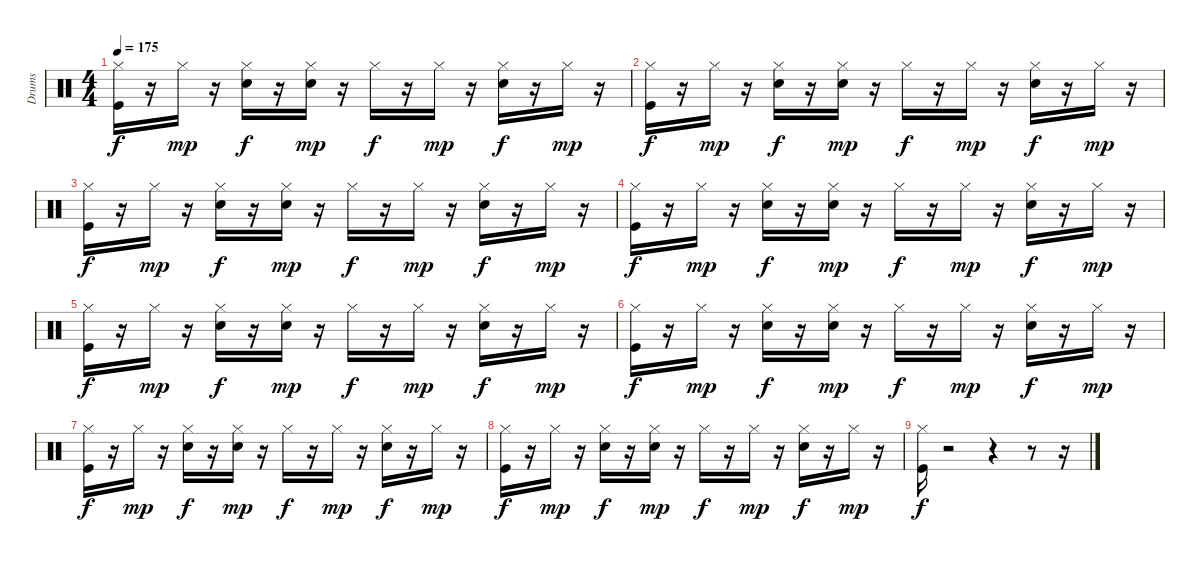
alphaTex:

\track ("Drums" "Drums") {instrument percussion}
\staff {score}
\articulation defaults
\ts (4 4)
\tempo 175
\clef neutral
\ks c
("Kick (hit)" "Hi-Hat (closed)").16{dy f} r.16 "Hi-Hat (closed)".16{dy mp} r.16 ("Snare (hit) 2" "Hi-Hat (closed)").16{dy f} r.16 ("Snare (hit) 2" "Hi-Hat (closed)").16{dy mp} r.16 "Hi-Hat (closed)".16{dy f} r.16 "Hi-Hat (closed)".16{dy mp} r.16 ("Snare (hit) 2" "Hi-Hat (closed)").16{dy f} r.16 "Hi-Hat (closed)".16{dy mp} r.16 |
("Kick (hit)" "Hi-Hat (closed)").16{dy f} r.16 "Hi-Hat (closed)".16{dy mp} r.16 ("Snare (hit) 2" "Hi-Hat (closed)").16{dy f} r.16 ("Snare (hit) 2" "Hi-Hat (closed)").16{dy mp} r.16 "Hi-Hat (closed)".16{dy f} r.16 "Hi-Hat (closed)".16{dy mp} r.16 ("Snare (hit) 2" "Hi-Hat (closed)").16{dy f} r.16 "Hi-Hat (closed)".16{dy mp} r.16 |
("Kick (hit)" "Hi-Hat (closed)").16{dy f} r.16 "Hi-Hat (closed)".16{dy mp} r.16 ("Snare (hit) 2" "Hi-Hat (closed)").16{dy f} r.16 ("Snare (hit) 2" "Hi-Hat (closed)").16{dy mp} r.16 "Hi-Hat (closed)".16{dy f} r.16 "Hi-Hat (closed)".16{dy mp} r.16 ("Snare (hit) 2" "Hi-Hat (closed)").16{dy f} r.16 "Hi-Hat (closed)".16{dy mp} r.16 |
("Kick (hit)" "Hi-Hat (closed)").16{dy f} r.16 "Hi-Hat (closed)".16{dy mp} r.16 ("Snare (hit) 2" "Hi-Hat (closed)").16{dy f} r.16 ("Snare (hit) 2" "Hi-Hat (closed)").16{dy mp} r.16 "Hi-Hat (closed)".16{dy f} r.16 "Hi-Hat (closed)".16{dy mp} r.16 ("Snare (hit) 2" "Hi-Hat (closed)").16{dy f} r.16 "Hi-Hat (closed)".16{dy mp} r.16 |
("Kick (hit)" "Hi-Hat (closed)").16{dy f} r.16 "Hi-Hat (closed)".16{dy mp} r.16 ("Snare (hit) 2" "Hi-Hat (closed)").16{dy f} r.16 ("Snare (hit) 2" "Hi-Hat (closed)").16{dy mp} r.16 "Hi-Hat (closed)".16{dy f} r.16 "Hi-Hat (closed)".16{dy mp} r.16 ("Snare (hit) 2" "Hi-Hat (closed)").16{dy f} r.16 "Hi-Hat (closed)".16{dy mp} r.16 |
("Kick (hit)" "Hi-Hat (closed)").16{dy f} r.16 "Hi-Hat (closed)".16{dy mp} r.16 ("Snare (hit) 2" "Hi-Hat (closed)").16{dy f} r.16 ("Snare (hit) 2" "Hi-Hat (closed)").16{dy mp} r.16 "Hi-Hat (closed)".16{dy f} r.16 "Hi-Hat (closed)".16{dy mp} r.16 ("Snare (hit) 2" "Hi-Hat (closed)").16{dy f} r.16 "Hi-Hat (closed)".16{dy mp} r.16 |
("Kick (hit)" "Hi-Hat (closed)").16{dy f} r.16 "Hi-Hat (closed)".16{dy mp} r.16 ("Snare (hit) 2" "Hi-Hat (closed)").16{dy f} r.16 ("Snare (hit) 2" "Hi-Hat (closed)").16{dy mp} r.16 "Hi-Hat (closed)".16{dy f} r.16 "Hi-Hat (closed)".16{dy mp} r.16 ("Snare (hit) 2" "Hi-Hat (closed)").16{dy f} r.16 "Hi-Hat (closed)".16{dy mp} r.16 |
("Kick (hit)" "Hi-Hat (closed)").16{dy f} r.16 "Hi-Hat (closed)".16{dy mp} r.16 ("Snare (hit) 2" "Hi-Hat (closed)").16{dy f} r.16 ("Snare (hit) 2" "Hi-Hat (closed)").16{dy mp} r.16 "Hi-Hat (closed)".16{dy f} r.16 "Hi-Hat (closed)".16{dy mp} r.16 ("Snare (hit) 2" "Hi-Hat (closed)").16{dy f} r.16 "Hi-Hat (closed)".16{dy mp} r.16 |
("Kick (hit)" "Hi-Hat (closed)").16{dy f} r.2 r.4 r.8 r.16
